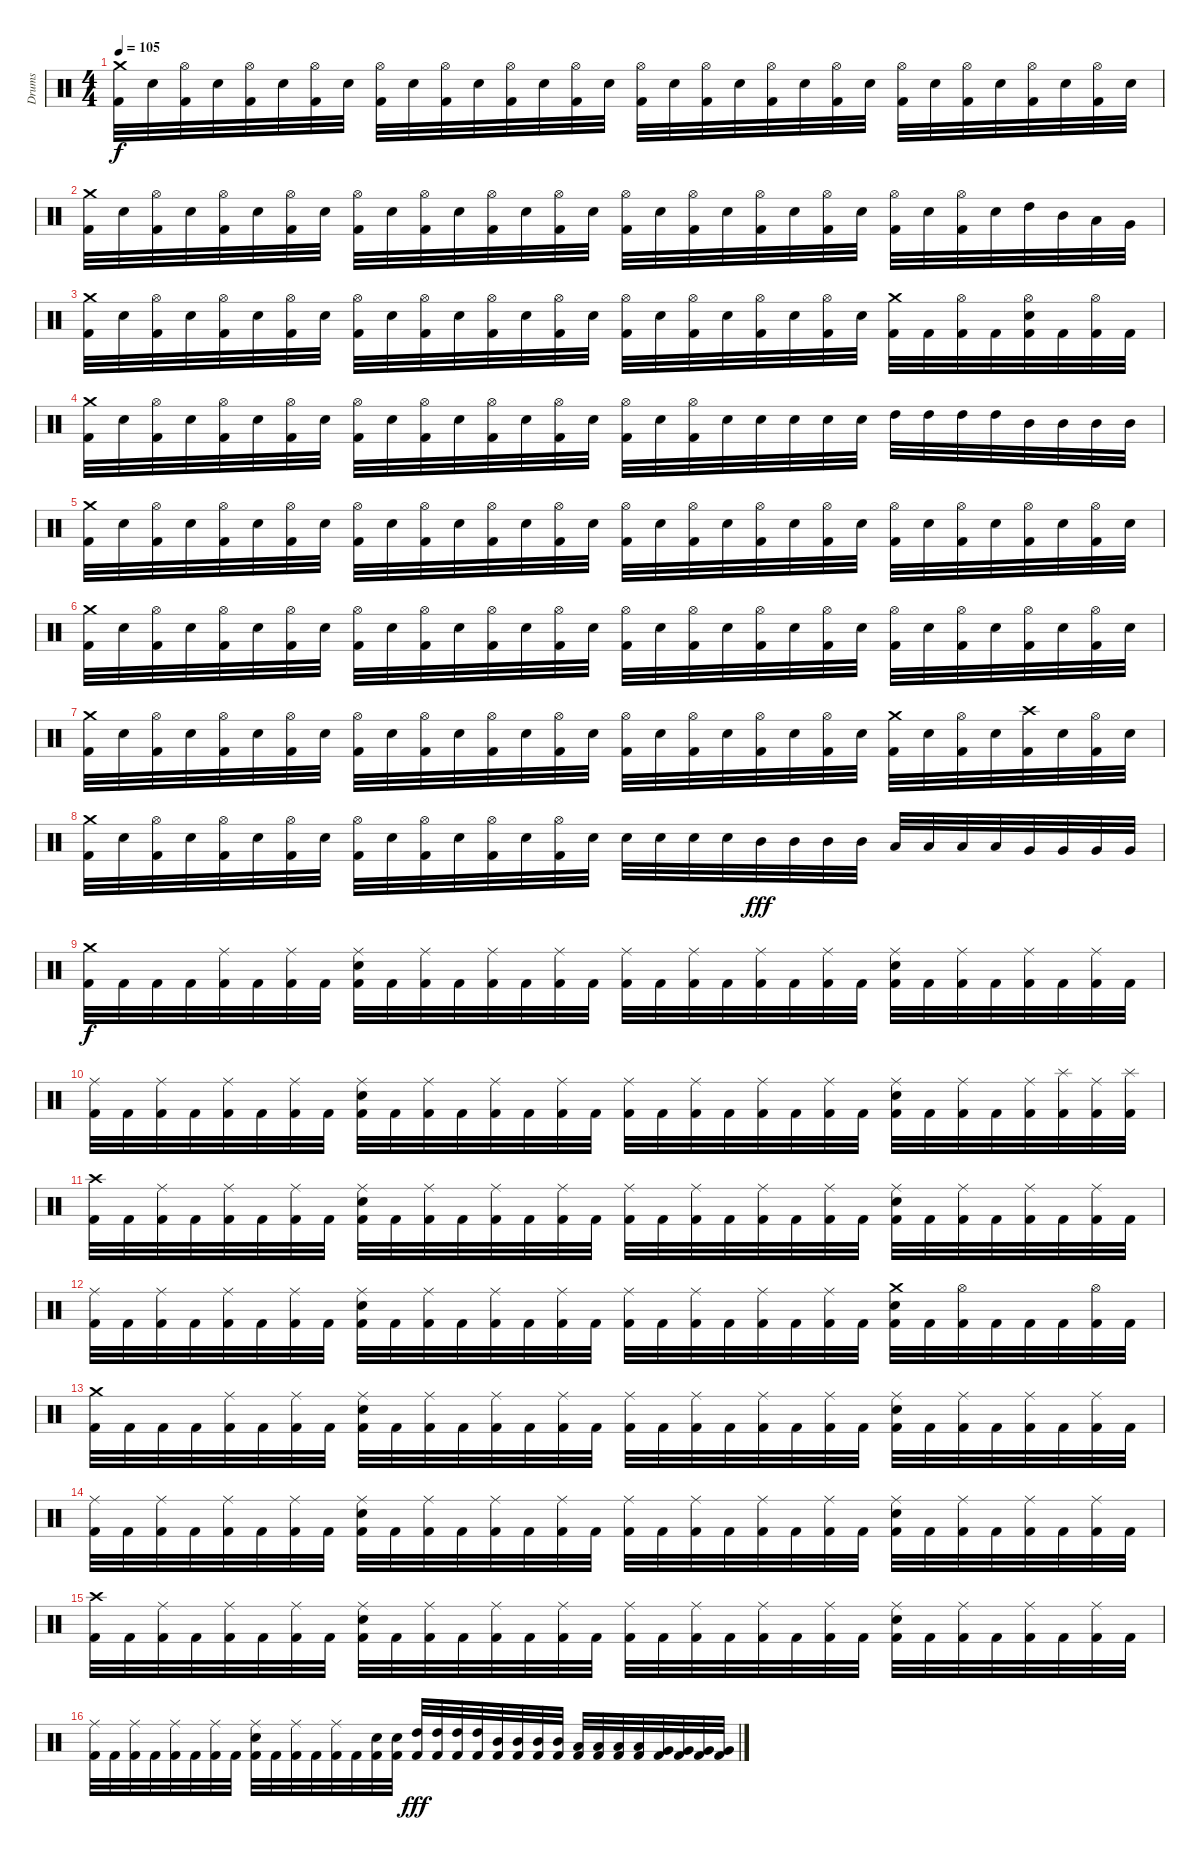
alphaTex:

\track ("Drums" "Drums") {instrument percussion}
\staff {score}
\articulation defaults
\ts (4 4)
\tempo 105
\clef neutral
\ks c
("Kick (hit) 2" "Crash medium (hit)").32{dy f volume 16} "Electric Snare (hit)".32 ("Kick (hit) 2" "Hi-Hat (open)").32 "Electric Snare (hit)".32 ("Kick (hit) 2" "Hi-Hat (open)").32 "Electric Snare (hit)".32 ("Kick (hit) 2" "Hi-Hat (open)").32 "Electric Snare (hit)".32 ("Kick (hit) 2" "Hi-Hat (open)").32 "Electric Snare (hit)".32 ("Kick (hit) 2" "Hi-Hat (open)").32 "Electric Snare (hit)".32 ("Kick (hit) 2" "Hi-Hat (open)").32 "Electric Snare (hit)".32 ("Kick (hit) 2" "Hi-Hat (open)").32 "Electric Snare (hit)".32 ("Kick (hit) 2" "Hi-Hat (open)").32 "Electric Snare (hit)".32 ("Kick (hit) 2" "Hi-Hat (open)").32 "Electric Snare (hit)".32 ("Kick (hit) 2" "Hi-Hat (open)").32 "Electric Snare (hit)".32 ("Kick (hit) 2" "Hi-Hat (open)").32 "Electric Snare (hit)".32 ("Kick (hit) 2" "Hi-Hat (open)").32 "Electric Snare (hit)".32 ("Kick (hit) 2" "Hi-Hat (open)").32 "Electric Snare (hit)".32 ("Kick (hit) 2" "Hi-Hat (open)").32 "Electric Snare (hit)".32 ("Kick (hit) 2" "Hi-Hat (open)").32 "Electric Snare (hit)".32 |
("Kick (hit) 2" "Crash medium (hit)").32 "Electric Snare (hit)".32 ("Kick (hit) 2" "Hi-Hat (open)").32 "Electric Snare (hit)".32 ("Kick (hit) 2" "Hi-Hat (open)").32 "Electric Snare (hit)".32 ("Kick (hit) 2" "Hi-Hat (open)").32 "Electric Snare (hit)".32 ("Kick (hit) 2" "Hi-Hat (open)").32 "Electric Snare (hit)".32 ("Kick (hit) 2" "Hi-Hat (open)").32 "Electric Snare (hit)".32 ("Kick (hit) 2" "Hi-Hat (open)").32 "Electric Snare (hit)".32 ("Kick (hit) 2" "Hi-Hat (open)").32 "Electric Snare (hit)".32 ("Kick (hit) 2" "Hi-Hat (open)").32 "Electric Snare (hit)".32 ("Kick (hit) 2" "Hi-Hat (open)").32 "Electric Snare (hit)".32 ("Kick (hit) 2" "Hi-Hat (open)").32 "Electric Snare (hit)".32 ("Kick (hit) 2" "Hi-Hat (open)").32 "Electric Snare (hit)".32 ("Kick (hit) 2" "Hi-Hat (open)").32 "Electric Snare (hit)".32 ("Kick (hit) 2" "Hi-Hat (open)").32 "Electric Snare (hit)".32 "High Tom (hit)".32 "Mid Tom (hit)".32 "Low Tom (hit)".32 "Very Low Tom (hit)".32 |
("Kick (hit) 2" "Crash medium (hit)").32 "Electric Snare (hit)".32 ("Kick (hit) 2" "Hi-Hat (open)").32 "Electric Snare (hit)".32 ("Kick (hit) 2" "Hi-Hat (open)").32 "Electric Snare (hit)".32 ("Kick (hit) 2" "Hi-Hat (open)").32 "Electric Snare (hit)".32 ("Kick (hit) 2" "Hi-Hat (open)").32 "Electric Snare (hit)".32 ("Kick (hit) 2" "Hi-Hat (open)").32 "Electric Snare (hit)".32 ("Kick (hit) 2" "Hi-Hat (open)").32 "Electric Snare (hit)".32 ("Kick (hit) 2" "Hi-Hat (open)").32 "Electric Snare (hit)".32 ("Kick (hit) 2" "Hi-Hat (open)").32 "Electric Snare (hit)".32 ("Kick (hit) 2" "Hi-Hat (open)").32 "Electric Snare (hit)".32 ("Kick (hit) 2" "Hi-Hat (open)").32 "Electric Snare (hit)".32 ("Kick (hit) 2" "Hi-Hat (open)").32 "Electric Snare (hit)".32 ("Kick (hit) 2" "Crash medium (hit)").32 "Kick (hit) 2".32 ("Kick (hit) 2" "Hi-Hat (open)").32 "Kick (hit) 2".32 ("Kick (hit) 2" "Electric Snare (hit)" "Hi-Hat (open)").32 "Kick (hit) 2".32 ("Kick (hit) 2" "Hi-Hat (open)").32 "Kick (hit) 2".32 |
("Kick (hit) 2" "Crash medium (hit)").32 "Electric Snare (hit)".32 ("Kick (hit) 2" "Hi-Hat (open)").32 "Electric Snare (hit)".32 ("Kick (hit) 2" "Hi-Hat (open)").32 "Electric Snare (hit)".32 ("Kick (hit) 2" "Hi-Hat (open)").32 "Electric Snare (hit)".32 ("Kick (hit) 2" "Hi-Hat (open)").32 "Electric Snare (hit)".32 ("Kick (hit) 2" "Hi-Hat (open)").32 "Electric Snare (hit)".32 ("Kick (hit) 2" "Hi-Hat (open)").32 "Electric Snare (hit)".32 ("Kick (hit) 2" "Hi-Hat (open)").32 "Electric Snare (hit)".32 ("Kick (hit) 2" "Hi-Hat (open)").32 "Electric Snare (hit)".32 ("Kick (hit) 2" "Hi-Hat (open)").32 "Electric Snare (hit)".32 "Electric Snare (hit)".32 "Electric Snare (hit)".32 "Electric Snare (hit)".32 "Electric Snare (hit)".32 "High Tom (hit)".32 "High Tom (hit)".32 "High Tom (hit)".32 "High Tom (hit)".32 "Mid Tom (hit)".32 "Mid Tom (hit)".32 "Mid Tom (hit)".32 "Mid Tom (hit)".32 |
("Kick (hit) 2" "Crash medium (hit)").32 "Electric Snare (hit)".32 ("Kick (hit) 2" "Hi-Hat (open)").32 "Electric Snare (hit)".32 ("Kick (hit) 2" "Hi-Hat (open)").32 "Electric Snare (hit)".32 ("Kick (hit) 2" "Hi-Hat (open)").32 "Electric Snare (hit)".32 ("Kick (hit) 2" "Hi-Hat (open)").32 "Electric Snare (hit)".32 ("Kick (hit) 2" "Hi-Hat (open)").32 "Electric Snare (hit)".32 ("Kick (hit) 2" "Hi-Hat (open)").32 "Electric Snare (hit)".32 ("Kick (hit) 2" "Hi-Hat (open)").32 "Electric Snare (hit)".32 ("Kick (hit) 2" "Hi-Hat (open)").32 "Electric Snare (hit)".32 ("Kick (hit) 2" "Hi-Hat (open)").32 "Electric Snare (hit)".32 ("Kick (hit) 2" "Hi-Hat (open)").32 "Electric Snare (hit)".32 ("Kick (hit) 2" "Hi-Hat (open)").32 "Electric Snare (hit)".32 ("Kick (hit) 2" "Hi-Hat (open)").32 "Electric Snare (hit)".32 ("Kick (hit) 2" "Hi-Hat (open)").32 "Electric Snare (hit)".32 ("Kick (hit) 2" "Hi-Hat (open)").32 "Electric Snare (hit)".32 ("Kick (hit) 2" "Hi-Hat (open)").32 "Electric Snare (hit)".32 |
("Kick (hit) 2" "Crash medium (hit)").32 "Electric Snare (hit)".32 ("Kick (hit) 2" "Hi-Hat (open)").32 "Electric Snare (hit)".32 ("Kick (hit) 2" "Hi-Hat (open)").32 "Electric Snare (hit)".32 ("Kick (hit) 2" "Hi-Hat (open)").32 "Electric Snare (hit)".32 ("Kick (hit) 2" "Hi-Hat (open)").32 "Electric Snare (hit)".32 ("Kick (hit) 2" "Hi-Hat (open)").32 "Electric Snare (hit)".32 ("Kick (hit) 2" "Hi-Hat (open)").32 "Electric Snare (hit)".32 ("Kick (hit) 2" "Hi-Hat (open)").32 "Electric Snare (hit)".32 ("Kick (hit) 2" "Hi-Hat (open)").32 "Electric Snare (hit)".32 ("Kick (hit) 2" "Hi-Hat (open)").32 "Electric Snare (hit)".32 ("Kick (hit) 2" "Hi-Hat (open)").32 "Electric Snare (hit)".32 ("Kick (hit) 2" "Hi-Hat (open)").32 "Electric Snare (hit)".32 ("Kick (hit) 2" "Hi-Hat (open)").32 "Electric Snare (hit)".32 ("Kick (hit) 2" "Hi-Hat (open)").32 "Electric Snare (hit)".32 ("Kick (hit) 2" "Hi-Hat (open)").32 "Electric Snare (hit)".32 ("Kick (hit) 2" "Hi-Hat (open)").32 "Electric Snare (hit)".32 |
("Kick (hit) 2" "Crash medium (hit)").32 "Electric Snare (hit)".32 ("Kick (hit) 2" "Hi-Hat (open)").32 "Electric Snare (hit)".32 ("Kick (hit) 2" "Hi-Hat (open)").32 "Electric Snare (hit)".32 ("Kick (hit) 2" "Hi-Hat (open)").32 "Electric Snare (hit)".32 ("Kick (hit) 2" "Hi-Hat (open)").32 "Electric Snare (hit)".32 ("Kick (hit) 2" "Hi-Hat (open)").32 "Electric Snare (hit)".32 ("Kick (hit) 2" "Hi-Hat (open)").32 "Electric Snare (hit)".32 ("Kick (hit) 2" "Hi-Hat (open)").32 "Electric Snare (hit)".32 ("Kick (hit) 2" "Hi-Hat (open)").32 "Electric Snare (hit)".32 ("Kick (hit) 2" "Hi-Hat (open)").32 "Electric Snare (hit)".32 ("Kick (hit) 2" "Hi-Hat (open)").32 "Electric Snare (hit)".32 ("Kick (hit) 2" "Hi-Hat (open)").32 "Electric Snare (hit)".32 ("Kick (hit) 2" "Crash medium (hit)").32 "Electric Snare (hit)".32 ("Kick (hit) 2" "Hi-Hat (open)").32 "Electric Snare (hit)".32 ("Kick (hit) 2" "Crash high (hit)").32 "Electric Snare (hit)".32 ("Kick (hit) 2" "Hi-Hat (open)").32 "Electric Snare (hit)".32 |
("Kick (hit) 2" "Crash medium (hit)").32 "Electric Snare (hit)".32 ("Kick (hit) 2" "Hi-Hat (open)").32 "Electric Snare (hit)".32 ("Kick (hit) 2" "Hi-Hat (open)").32 "Electric Snare (hit)".32 ("Kick (hit) 2" "Hi-Hat (open)").32 "Electric Snare (hit)".32 ("Kick (hit) 2" "Hi-Hat (open)").32 "Electric Snare (hit)".32 ("Kick (hit) 2" "Hi-Hat (open)").32 "Electric Snare (hit)".32 ("Kick (hit) 2" "Hi-Hat (open)").32 "Electric Snare (hit)".32 ("Kick (hit) 2" "Hi-Hat (open)").32 "Electric Snare (hit)".32 "Electric Snare (hit)".32 "Electric Snare (hit)".32 "Electric Snare (hit)".32 "Electric Snare (hit)".32 "Mid Tom (hit)".32{dy fff} "Mid Tom (hit)".32 "Mid Tom (hit)".32 "Mid Tom (hit)".32 "Low Tom (hit)".32 "Low Tom (hit)".32 "Low Tom (hit)".32 "Low Tom (hit)".32 "Very Low Tom (hit)".32 "Very Low Tom (hit)".32 "Very Low Tom (hit)".32 "Very Low Tom (hit)".32 |
("Kick (hit) 2" "Crash medium (hit)").32{dy f} "Kick (hit) 2".32 "Kick (hit) 2".32 "Kick (hit) 2".32 ("Kick (hit) 2" "Ride (middle)").32 "Kick (hit) 2".32 ("Kick (hit) 2" "Ride (middle)").32 "Kick (hit) 2".32 ("Kick (hit) 2" "Electric Snare (hit)" "Ride (middle)").32 "Kick (hit) 2".32 ("Kick (hit) 2" "Ride (middle)").32 "Kick (hit) 2".32 ("Kick (hit) 2" "Ride (middle)").32 "Kick (hit) 2".32 ("Kick (hit) 2" "Ride (middle)").32 "Kick (hit) 2".32 ("Kick (hit) 2" "Ride (middle)").32 "Kick (hit) 2".32 ("Kick (hit) 2" "Ride (middle)").32 "Kick (hit) 2".32 ("Kick (hit) 2" "Ride (middle)").32 "Kick (hit) 2".32 ("Kick (hit) 2" "Ride (middle)").32 "Kick (hit) 2".32 ("Kick (hit) 2" "Electric Snare (hit)" "Ride (middle)").32 "Kick (hit) 2".32 ("Kick (hit) 2" "Ride (middle)").32 "Kick (hit) 2".32 ("Kick (hit) 2" "Ride (middle)").32 "Kick (hit) 2".32 ("Kick (hit) 2" "Ride (middle)").32 "Kick (hit) 2".32 |
("Kick (hit) 2" "Ride (middle)").32 "Kick (hit) 2".32 ("Kick (hit) 2" "Ride (middle)").32 "Kick (hit) 2".32 ("Kick (hit) 2" "Ride (middle)").32 "Kick (hit) 2".32 ("Kick (hit) 2" "Ride (middle)").32 "Kick (hit) 2".32 ("Kick (hit) 2" "Electric Snare (hit)" "Ride (middle)").32 "Kick (hit) 2".32 ("Kick (hit) 2" "Ride (middle)").32 "Kick (hit) 2".32 ("Kick (hit) 2" "Ride (middle)").32 "Kick (hit) 2".32 ("Kick (hit) 2" "Ride (middle)").32 "Kick (hit) 2".32 ("Kick (hit) 2" "Ride (middle)").32 "Kick (hit) 2".32 ("Kick (hit) 2" "Ride (middle)").32 "Kick (hit) 2".32 ("Kick (hit) 2" "Ride (middle)").32 "Kick (hit) 2".32 ("Kick (hit) 2" "Ride (middle)").32 "Kick (hit) 2".32 ("Kick (hit) 2" "Electric Snare (hit)" "Ride (middle)").32 "Kick (hit) 2".32 ("Kick (hit) 2" "Ride (middle)").32 "Kick (hit) 2".32 ("Kick (hit) 2" "Ride (middle)").32 ("Kick (hit) 2" "Splash (hit)").32 ("Kick (hit) 2" "Ride (middle)").32 ("Kick (hit) 2" "Splash (hit)").32 |
("Kick (hit) 2" "Crash high (hit)").32 "Kick (hit) 2".32 ("Kick (hit) 2" "Ride (middle)").32 "Kick (hit) 2".32 ("Kick (hit) 2" "Ride (middle)").32 "Kick (hit) 2".32 ("Kick (hit) 2" "Ride (middle)").32 "Kick (hit) 2".32 ("Kick (hit) 2" "Electric Snare (hit)" "Ride (middle)").32 "Kick (hit) 2".32 ("Kick (hit) 2" "Ride (middle)").32 "Kick (hit) 2".32 ("Kick (hit) 2" "Ride (middle)").32 "Kick (hit) 2".32 ("Kick (hit) 2" "Ride (middle)").32 "Kick (hit) 2".32 ("Kick (hit) 2" "Ride (middle)").32 "Kick (hit) 2".32 ("Kick (hit) 2" "Ride (middle)").32 "Kick (hit) 2".32 ("Kick (hit) 2" "Ride (middle)").32 "Kick (hit) 2".32 ("Kick (hit) 2" "Ride (middle)").32 "Kick (hit) 2".32 ("Kick (hit) 2" "Electric Snare (hit)" "Ride (middle)").32 "Kick (hit) 2".32 ("Kick (hit) 2" "Ride (middle)").32 "Kick (hit) 2".32 ("Kick (hit) 2" "Ride (middle)").32 "Kick (hit) 2".32 ("Kick (hit) 2" "Ride (middle)").32 "Kick (hit) 2".32 |
("Kick (hit) 2" "Ride (middle)").32 "Kick (hit) 2".32 ("Kick (hit) 2" "Ride (middle)").32 "Kick (hit) 2".32 ("Kick (hit) 2" "Ride (middle)").32 "Kick (hit) 2".32 ("Kick (hit) 2" "Ride (middle)").32 "Kick (hit) 2".32 ("Kick (hit) 2" "Electric Snare (hit)" "Ride (middle)").32 "Kick (hit) 2".32 ("Kick (hit) 2" "Ride (middle)").32 "Kick (hit) 2".32 ("Kick (hit) 2" "Ride (middle)").32 "Kick (hit) 2".32 ("Kick (hit) 2" "Ride (middle)").32 "Kick (hit) 2".32 ("Kick (hit) 2" "Ride (middle)").32 "Kick (hit) 2".32 ("Kick (hit) 2" "Ride (middle)").32 "Kick (hit) 2".32 ("Kick (hit) 2" "Ride (middle)").32 "Kick (hit) 2".32 ("Kick (hit) 2" "Ride (middle)").32 "Kick (hit) 2".32 ("Kick (hit) 2" "Electric Snare (hit)" "Crash medium (hit)").32 "Kick (hit) 2".32 ("Kick (hit) 2" "Hi-Hat (open)").32 "Kick (hit) 2".32 "Kick (hit) 2".32 "Kick (hit) 2".32 ("Kick (hit) 2" "Hi-Hat (open)").32 "Kick (hit) 2".32 |
("Kick (hit) 2" "Crash medium (hit)").32 "Kick (hit) 2".32 "Kick (hit) 2".32 "Kick (hit) 2".32 ("Kick (hit) 2" "Ride (middle)").32 "Kick (hit) 2".32 ("Kick (hit) 2" "Ride (middle)").32 "Kick (hit) 2".32 ("Kick (hit) 2" "Electric Snare (hit)" "Ride (middle)").32 "Kick (hit) 2".32 ("Kick (hit) 2" "Ride (middle)").32 "Kick (hit) 2".32 ("Kick (hit) 2" "Ride (middle)").32 "Kick (hit) 2".32 ("Kick (hit) 2" "Ride (middle)").32 "Kick (hit) 2".32 ("Kick (hit) 2" "Ride (middle)").32 "Kick (hit) 2".32 ("Kick (hit) 2" "Ride (middle)").32 "Kick (hit) 2".32 ("Kick (hit) 2" "Ride (middle)").32 "Kick (hit) 2".32 ("Kick (hit) 2" "Ride (middle)").32 "Kick (hit) 2".32 ("Kick (hit) 2" "Electric Snare (hit)" "Ride (middle)").32 "Kick (hit) 2".32 ("Kick (hit) 2" "Ride (middle)").32 "Kick (hit) 2".32 ("Kick (hit) 2" "Ride (middle)").32 "Kick (hit) 2".32 ("Kick (hit) 2" "Ride (middle)").32 "Kick (hit) 2".32 |
("Kick (hit) 2" "Ride (middle)").32 "Kick (hit) 2".32 ("Kick (hit) 2" "Ride (middle)").32 "Kick (hit) 2".32 ("Kick (hit) 2" "Ride (middle)").32 "Kick (hit) 2".32 ("Kick (hit) 2" "Ride (middle)").32 "Kick (hit) 2".32 ("Kick (hit) 2" "Electric Snare (hit)" "Ride (middle)").32 "Kick (hit) 2".32 ("Kick (hit) 2" "Ride (middle)").32 "Kick (hit) 2".32 ("Kick (hit) 2" "Ride (middle)").32 "Kick (hit) 2".32 ("Kick (hit) 2" "Ride (middle)").32 "Kick (hit) 2".32 ("Kick (hit) 2" "Ride (middle)").32 "Kick (hit) 2".32 ("Kick (hit) 2" "Ride (middle)").32 "Kick (hit) 2".32 ("Kick (hit) 2" "Ride (middle)").32 "Kick (hit) 2".32 ("Kick (hit) 2" "Ride (middle)").32 "Kick (hit) 2".32 ("Kick (hit) 2" "Electric Snare (hit)" "Ride (middle)").32 "Kick (hit) 2".32 ("Kick (hit) 2" "Ride (middle)").32 "Kick (hit) 2".32 ("Kick (hit) 2" "Ride (middle)").32 "Kick (hit) 2".32 ("Kick (hit) 2" "Ride (middle)").32 "Kick (hit) 2".32 |
("Kick (hit) 2" "Crash high (hit)").32 "Kick (hit) 2".32 ("Kick (hit) 2" "Ride (middle)").32 "Kick (hit) 2".32 ("Kick (hit) 2" "Ride (middle)").32 "Kick (hit) 2".32 ("Kick (hit) 2" "Ride (middle)").32 "Kick (hit) 2".32 ("Kick (hit) 2" "Electric Snare (hit)" "Ride (middle)").32 "Kick (hit) 2".32 ("Kick (hit) 2" "Ride (middle)").32 "Kick (hit) 2".32 ("Kick (hit) 2" "Ride (middle)").32 "Kick (hit) 2".32 ("Kick (hit) 2" "Ride (middle)").32 "Kick (hit) 2".32 ("Kick (hit) 2" "Ride (middle)").32 "Kick (hit) 2".32 ("Kick (hit) 2" "Ride (middle)").32 "Kick (hit) 2".32 ("Kick (hit) 2" "Ride (middle)").32 "Kick (hit) 2".32 ("Kick (hit) 2" "Ride (middle)").32 "Kick (hit) 2".32 ("Kick (hit) 2" "Electric Snare (hit)" "Ride (middle)").32 "Kick (hit) 2".32 ("Kick (hit) 2" "Ride (middle)").32 "Kick (hit) 2".32 ("Kick (hit) 2" "Ride (middle)").32 "Kick (hit) 2".32 ("Kick (hit) 2" "Ride (middle)").32 "Kick (hit) 2".32 |
("Kick (hit) 2" "Ride (middle)").32 "Kick (hit) 2".32 ("Kick (hit) 2" "Ride (middle)").32 "Kick (hit) 2".32 ("Kick (hit) 2" "Ride (middle)").32 "Kick (hit) 2".32 ("Kick (hit) 2" "Ride (middle)").32 "Kick (hit) 2".32 ("Kick (hit) 2" "Electric Snare (hit)" "Ride (middle)").32 "Kick (hit) 2".32 ("Kick (hit) 2" "Ride (middle)").32 "Kick (hit) 2".32 ("Kick (hit) 2" "Ride (middle)").32 "Kick (hit) 2".32 ("Kick (hit) 2" "Electric Snare (hit)").32 ("Kick (hit) 2" "Electric Snare (hit)").32 ("Kick (hit) 2" "High Tom (hit)").32{dy fff} ("Kick (hit) 2" "High Tom (hit)").32 ("Kick (hit) 2" "High Tom (hit)").32 ("Kick (hit) 2" "High Tom (hit)").32 ("Kick (hit) 2" "Mid Tom (hit)").32 ("Kick (hit) 2" "Mid Tom (hit)").32 ("Kick (hit) 2" "Mid Tom (hit)").32 ("Kick (hit) 2" "Mid Tom (hit)").32 ("Kick (hit) 2" "Low Tom (hit)").32 ("Kick (hit) 2" "Low Tom (hit)").32 ("Kick (hit) 2" "Low Tom (hit)").32 ("Kick (hit) 2" "Low Tom (hit)").32 ("Kick (hit) 2" "Very Low Tom (hit)").32 ("Kick (hit) 2" "Very Low Tom (hit)").32 ("Kick (hit) 2" "Very Low Tom (hit)").32 ("Kick (hit) 2" "Very Low Tom (hit)").32
